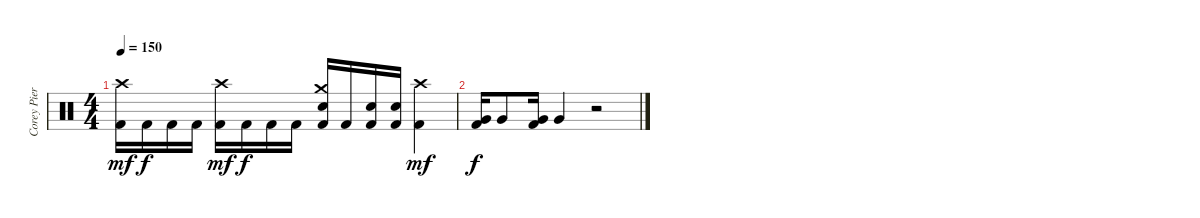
\track ("Corey Pierce" "Corey Pier") {instrument percussion}
\staff {score}
\articulation defaults
\ts (4 4)
\tempo 150
\clef neutral
\ks c
("Crash high (hit)" "Kick (hit) 2").16{dy mf} "Kick (hit) 2".16{dy f} "Kick (hit) 2".16 "Kick (hit) 2".16 ("Crash high (hit)" "Kick (hit) 2").16{dy mf} "Kick (hit) 2".16{dy f} "Kick (hit) 2".16 "Kick (hit) 2".16 ("Crash medium (hit)" "Electric Snare (hit)" "Kick (hit) 2").16 "Kick (hit) 2".16 ("Electric Snare (hit)" "Kick (hit) 2").16 ("Electric Snare (hit)" "Kick (hit) 2").16 ("Crash high (hit)" "Kick (hit) 2").4{dy mf} |
("Very Low Tom (hit)" "Kick (hit) 2").16{dy f} "Very Low Tom (hit)".8 ("Very Low Tom (hit)" "Kick (hit) 2").16 "Very Low Tom (hit)".4 r.2
